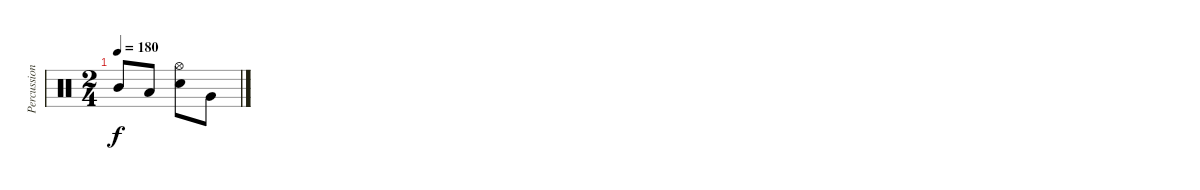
\track ("Percussion" "Percussion") {instrument percussion}
\staff {score}
\articulation defaults
\ts (2 4)
\tempo 180
\clef neutral
\ks c "Mid Tom (hit)".8{dy f} "Low Tom (hit)".8
("Hi-Hat (open)" "Electric Snare (hit)").8 "Very Low Tom (hit)".8
